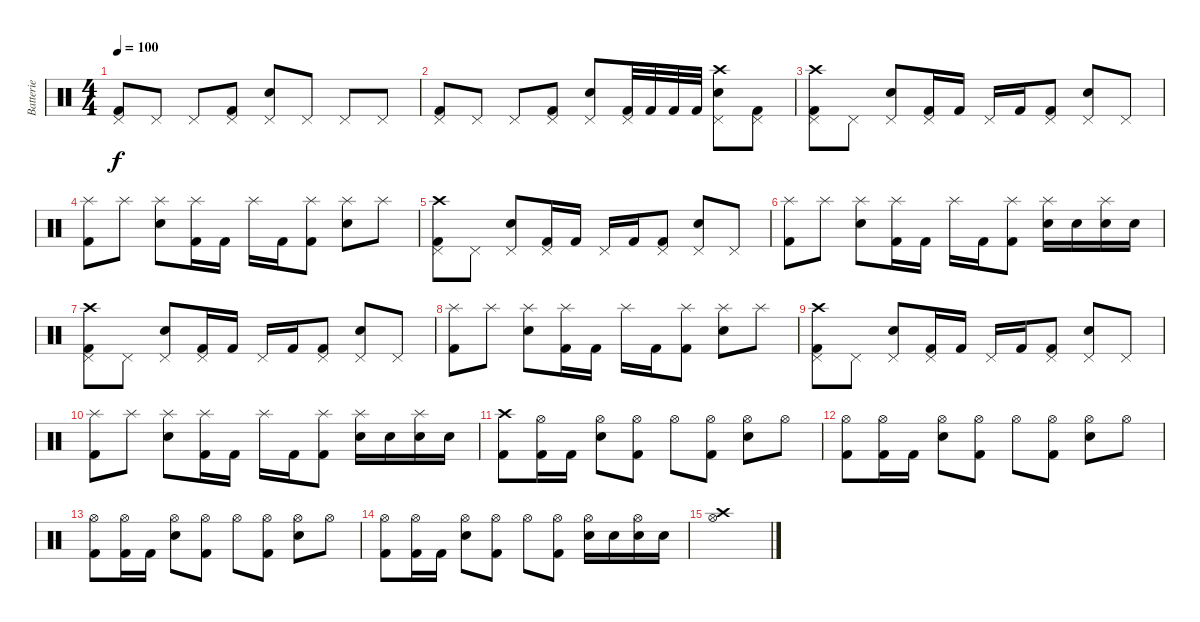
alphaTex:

\track ("Batterie" "Batterie") {instrument percussion}
\staff {score}
\articulation defaults
\ts (4 4)
\tempo 100
\clef neutral
\ks c
("Pedal Hi-Hat (hit)" "Kick (hit) 2").8{dy f} "Pedal Hi-Hat (hit)".8 "Pedal Hi-Hat (hit)".8 ("Pedal Hi-Hat (hit)" "Kick (hit) 2").8 ("Pedal Hi-Hat (hit)" "Electric Snare (hit)").8 "Pedal Hi-Hat (hit)".8 "Pedal Hi-Hat (hit)".8 "Pedal Hi-Hat (hit)".8 |
("Pedal Hi-Hat (hit)" "Kick (hit) 2").8 "Pedal Hi-Hat (hit)".8 "Pedal Hi-Hat (hit)".8 ("Pedal Hi-Hat (hit)" "Kick (hit) 2").8 ("Pedal Hi-Hat (hit)" "Electric Snare (hit)").8 ("Pedal Hi-Hat (hit)" "Kick (hit) 2").32 "Kick (hit) 2".32 "Kick (hit) 2".32 "Kick (hit) 2".32 ("Crash high (hit)" "Pedal Hi-Hat (hit)" "Electric Snare (hit)").8 ("Pedal Hi-Hat (hit)" "Kick (hit) 2").8 |
("Crash high (hit)" "Pedal Hi-Hat (hit)" "Kick (hit) 2").8 "Pedal Hi-Hat (hit)".8 ("Pedal Hi-Hat (hit)" "Electric Snare (hit)").8 ("Pedal Hi-Hat (hit)" "Kick (hit) 2").16 "Kick (hit) 2".16 "Pedal Hi-Hat (hit)".16 "Kick (hit) 2".16 ("Pedal Hi-Hat (hit)" "Kick (hit) 2").8 ("Pedal Hi-Hat (hit)" "Electric Snare (hit)").8 "Pedal Hi-Hat (hit)".8 |
("Splash (hit)" "Kick (hit) 2").8 "Splash (hit)".8 ("Splash (hit)" "Electric Snare (hit)").8 ("Splash (hit)" "Kick (hit) 2").16 "Kick (hit) 2".16 "Splash (hit)".16 "Kick (hit) 2".16 ("Splash (hit)" "Kick (hit) 2").8 ("Splash (hit)" "Electric Snare (hit)").8 "Splash (hit)".8 |
("Crash high (hit)" "Pedal Hi-Hat (hit)" "Kick (hit) 2").8 "Pedal Hi-Hat (hit)".8 ("Pedal Hi-Hat (hit)" "Electric Snare (hit)").8 ("Pedal Hi-Hat (hit)" "Kick (hit) 2").16 "Kick (hit) 2".16 "Pedal Hi-Hat (hit)".16 "Kick (hit) 2".16 ("Pedal Hi-Hat (hit)" "Kick (hit) 2").8 ("Pedal Hi-Hat (hit)" "Electric Snare (hit)").8 "Pedal Hi-Hat (hit)".8 |
("Splash (hit)" "Kick (hit) 2").8 "Splash (hit)".8 ("Splash (hit)" "Electric Snare (hit)").8 ("Splash (hit)" "Kick (hit) 2").16 "Kick (hit) 2".16 "Splash (hit)".16 "Kick (hit) 2".16 ("Splash (hit)" "Kick (hit) 2").8 ("Splash (hit)" "Electric Snare (hit)").16 "Electric Snare (hit)".16 ("Splash (hit)" "Electric Snare (hit)").16 "Electric Snare (hit)".16 |
("Crash high (hit)" "Pedal Hi-Hat (hit)" "Kick (hit) 2").8 "Pedal Hi-Hat (hit)".8 ("Pedal Hi-Hat (hit)" "Electric Snare (hit)").8 ("Pedal Hi-Hat (hit)" "Kick (hit) 2").16 "Kick (hit) 2".16 "Pedal Hi-Hat (hit)".16 "Kick (hit) 2".16 ("Pedal Hi-Hat (hit)" "Kick (hit) 2").8 ("Pedal Hi-Hat (hit)" "Electric Snare (hit)").8 "Pedal Hi-Hat (hit)".8 |
("Splash (hit)" "Kick (hit) 2").8 "Splash (hit)".8 ("Splash (hit)" "Electric Snare (hit)").8 ("Splash (hit)" "Kick (hit) 2").16 "Kick (hit) 2".16 "Splash (hit)".16 "Kick (hit) 2".16 ("Splash (hit)" "Kick (hit) 2").8 ("Splash (hit)" "Electric Snare (hit)").8 "Splash (hit)".8 |
("Crash high (hit)" "Pedal Hi-Hat (hit)" "Kick (hit) 2").8 "Pedal Hi-Hat (hit)".8 ("Pedal Hi-Hat (hit)" "Electric Snare (hit)").8 ("Pedal Hi-Hat (hit)" "Kick (hit) 2").16 "Kick (hit) 2".16 "Pedal Hi-Hat (hit)".16 "Kick (hit) 2".16 ("Pedal Hi-Hat (hit)" "Kick (hit) 2").8 ("Pedal Hi-Hat (hit)" "Electric Snare (hit)").8 "Pedal Hi-Hat (hit)".8 |
("Splash (hit)" "Kick (hit) 2").8 "Splash (hit)".8 ("Splash (hit)" "Electric Snare (hit)").8 ("Splash (hit)" "Kick (hit) 2").16 "Kick (hit) 2".16 "Splash (hit)".16 "Kick (hit) 2".16 ("Splash (hit)" "Kick (hit) 2").8 ("Splash (hit)" "Electric Snare (hit)").16 "Electric Snare (hit)".16 ("Splash (hit)" "Electric Snare (hit)").16 "Electric Snare (hit)".16 |
("Crash high (hit)" "Kick (hit) 2").8 ("Hi-Hat (open)" "Kick (hit) 2").16 "Kick (hit) 2".16 ("Hi-Hat (open)" "Electric Snare (hit)").8 ("Hi-Hat (open)" "Kick (hit) 2").8 "Hi-Hat (open)".8 ("Hi-Hat (open)" "Kick (hit) 2").8 ("Hi-Hat (open)" "Electric Snare (hit)").8 "Hi-Hat (open)".8 |
("Hi-Hat (open)" "Kick (hit) 2").8 ("Hi-Hat (open)" "Kick (hit) 2").16 "Kick (hit) 2".16 ("Hi-Hat (open)" "Electric Snare (hit)").8 ("Hi-Hat (open)" "Kick (hit) 2").8 "Hi-Hat (open)".8 ("Hi-Hat (open)" "Kick (hit) 2").8 ("Hi-Hat (open)" "Electric Snare (hit)").8 "Hi-Hat (open)".8 |
("Hi-Hat (open)" "Kick (hit) 2").8 ("Hi-Hat (open)" "Kick (hit) 2").16 "Kick (hit) 2".16 ("Hi-Hat (open)" "Electric Snare (hit)").8 ("Hi-Hat (open)" "Kick (hit) 2").8 "Hi-Hat (open)".8 ("Hi-Hat (open)" "Kick (hit) 2").8 ("Hi-Hat (open)" "Electric Snare (hit)").8 "Hi-Hat (open)".8 |
("Hi-Hat (open)" "Kick (hit) 2").8 ("Hi-Hat (open)" "Kick (hit) 2").16 "Kick (hit) 2".16 ("Hi-Hat (open)" "Electric Snare (hit)").8 ("Hi-Hat (open)" "Kick (hit) 2").8 "Hi-Hat (open)".8 ("Hi-Hat (open)" "Kick (hit) 2").8 ("Hi-Hat (open)" "Electric Snare (hit)").16 "Electric Snare (hit)".16 ("Hi-Hat (open)" "Electric Snare (hit)").16 "Electric Snare (hit)".16 |
("Crash high (hit)" "Hi-Hat (open)").1
